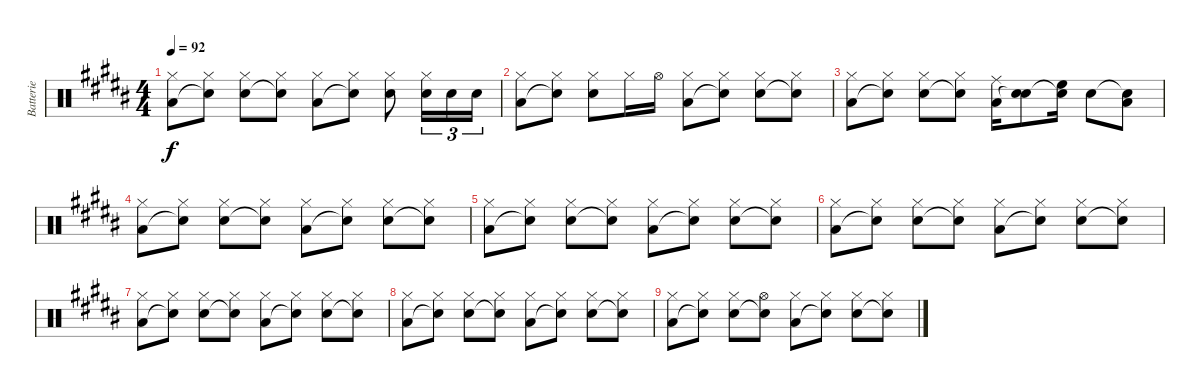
\track ("Batterie" "Batterie") {instrument percussion}
\staff {score}
\articulation defaults
\ts (4 4)
\tempo 92
\clef neutral
\ks b
("Hi-Hat (closed)" "Low Floor Tom (hit)").8{dy f} ("Hi-Hat (closed)" "Snare (hit)"{t}).8 ("Hi-Hat (closed)" "Electric Snare (hit)").8 ("Hi-Hat (closed)" "Snare (hit)"{t}).8 ("Hi-Hat (closed)" "Low Floor Tom (hit)").8 ("Hi-Hat (closed)" "Snare (hit)"{t}).8 ("Hi-Hat (closed)" "Electric Snare (hit)").8 ("Hi-Hat (closed)" "Electric Snare (hit)").16{tu (3 2)} "Electric Snare (hit)".16{tu (3 2)} "Electric Snare (hit)".16{tu (3 2)} |
("Hi-Hat (closed)" "Low Floor Tom (hit)").8 ("Hi-Hat (closed)" "Snare (hit)"{t}).8 ("Hi-Hat (closed)" "Electric Snare (hit)").8 "Hi-Hat (closed)".16 "Hi-Hat (open)".16 ("Hi-Hat (closed)" "Low Floor Tom (hit)").8 ("Hi-Hat (closed)" "Snare (hit)"{t}).8 ("Hi-Hat (closed)" "Electric Snare (hit)").8 ("Hi-Hat (closed)" "Snare (hit)"{t}).8 |
("Hi-Hat (closed)" "Low Floor Tom (hit)").8 ("Hi-Hat (closed)" "Snare (hit)"{t}).8 ("Hi-Hat (closed)" "Electric Snare (hit)").8 ("Hi-Hat (closed)" "Snare (hit)"{t}).8 ("Ride (middle)" "Low Floor Tom (hit)").16 ("Electric Snare (hit)" "Snare (hit)"{t}).8 ("High Floor Tom (hit)" "Snare (hit)"{t}).16 "Snare (hit) 2".8 ("Snare (hit)"{t} "Low Floor Tom (hit)").8 |
("Hi-Hat (closed)" "Low Floor Tom (hit)").8 ("Hi-Hat (closed)" "Snare (hit)"{t}).8 ("Hi-Hat (closed)" "Electric Snare (hit)").8 ("Hi-Hat (closed)" "Snare (hit)"{t}).8 ("Hi-Hat (closed)" "Low Floor Tom (hit)").8 ("Hi-Hat (closed)" "Snare (hit)"{t}).8 ("Hi-Hat (closed)" "Electric Snare (hit)").8 ("Hi-Hat (closed)" "Electric Snare (hit)"{t}).8 |
("Hi-Hat (closed)" "Low Floor Tom (hit)").8 ("Hi-Hat (closed)" "Snare (hit)"{t}).8 ("Hi-Hat (closed)" "Electric Snare (hit)").8 ("Hi-Hat (closed)" "Snare (hit)"{t}).8 ("Hi-Hat (closed)" "Low Floor Tom (hit)").8 ("Hi-Hat (closed)" "Snare (hit)"{t}).8 ("Hi-Hat (closed)" "Electric Snare (hit)").8 ("Hi-Hat (closed)" "Snare (hit)"{t}).8 |
("Hi-Hat (closed)" "Low Floor Tom (hit)").8 ("Hi-Hat (closed)" "Snare (hit)"{t}).8 ("Hi-Hat (closed)" "Electric Snare (hit)").8 ("Hi-Hat (closed)" "Snare (hit)"{t}).8 ("Hi-Hat (closed)" "Low Floor Tom (hit)").8 ("Hi-Hat (closed)" "Snare (hit)"{t}).8 ("Hi-Hat (closed)" "Electric Snare (hit)").8 ("Hi-Hat (closed)" "Snare (hit)"{t}).8 |
("Hi-Hat (closed)" "Low Floor Tom (hit)").8 ("Hi-Hat (closed)" "Snare (hit)"{t}).8 ("Hi-Hat (closed)" "Electric Snare (hit)").8 ("Hi-Hat (closed)" "Snare (hit)"{t}).8 ("Hi-Hat (closed)" "Low Floor Tom (hit)").8 ("Hi-Hat (closed)" "Snare (hit)"{t}).8 ("Hi-Hat (closed)" "Electric Snare (hit)").8 ("Hi-Hat (closed)" "Snare (hit)"{t}).8 |
("Hi-Hat (closed)" "Low Floor Tom (hit)").8 ("Hi-Hat (closed)" "Snare (hit)"{t}).8 ("Hi-Hat (closed)" "Electric Snare (hit)").8 ("Hi-Hat (closed)" "Snare (hit)"{t}).8 ("Hi-Hat (closed)" "Low Floor Tom (hit)").8 ("Hi-Hat (closed)" "Snare (hit)"{t}).8 ("Hi-Hat (closed)" "Electric Snare (hit)").8 ("Hi-Hat (closed)" "Snare (hit)"{t}).8 |
("Hi-Hat (closed)" "Low Floor Tom (hit)").8 ("Hi-Hat (closed)" "Snare (hit)"{t}).8 ("Hi-Hat (closed)" "Electric Snare (hit)").8 ("Hi-Hat (open)" "Snare (hit)"{t}).8 ("Hi-Hat (closed)" "Low Floor Tom (hit)").8 ("Hi-Hat (closed)" "Snare (hit)"{t}).8 ("Hi-Hat (closed)" "Electric Snare (hit)").8 ("Hi-Hat (closed)" "Snare (hit)"{t}).8
